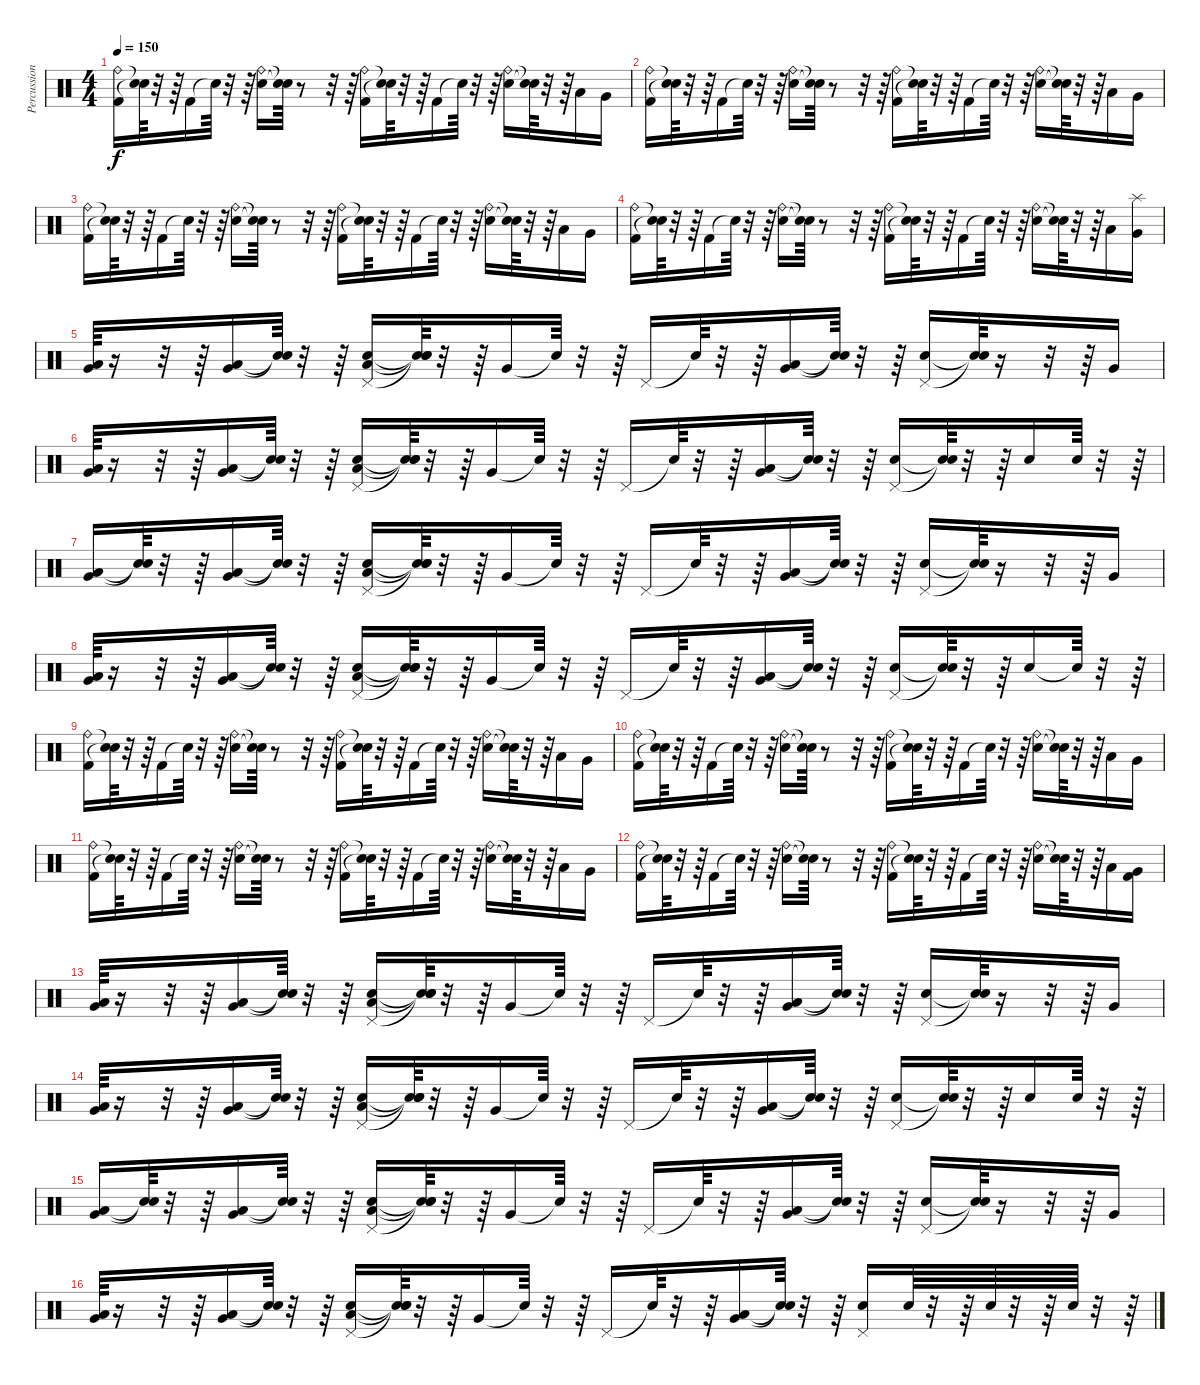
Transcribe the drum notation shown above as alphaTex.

\track ("Percussions" "Percussion") {instrument percussion}
\staff {score}
\articulation defaults
\ts (4 4)
\tempo 150
\clef neutral
\ks c
("Ride (bell)" "Kick (hit) 2").16{dy f} ("Snare (hit)"{t} "Snare (hit)"{t}).64 r.32 r.64 "Kick (hit) 2".16 "Snare (hit)"{t}.64 r.32 r.64 ("Ride (bell)" "Electric Snare (hit)").16 ("Snare (hit)"{t} "Snare (hit)"{t}).64 r.8 r.32 r.64 ("Ride (bell)" "Kick (hit) 2").16 ("Snare (hit)"{t} "Snare (hit)"{t}).64 r.32 r.64 "Kick (hit) 2".16 "Snare (hit)"{t}.64 r.32 r.64 ("Ride (bell)" "Electric Snare (hit)").16 ("Snare (hit)"{t} "Snare (hit)"{t}).64 r.32 r.64 "Low Tom (hit)".16 "Very Low Tom (hit)".16 |
("Ride (bell)" "Kick (hit) 2").16 ("Snare (hit)"{t} "Snare (hit)"{t}).64 r.32 r.64 "Kick (hit) 2".16 "Snare (hit)"{t}.64 r.32 r.64 ("Ride (bell)" "Electric Snare (hit)").16 ("Snare (hit)"{t} "Snare (hit)"{t}).64 r.8 r.32 r.64 ("Ride (bell)" "Kick (hit) 2").16 ("Snare (hit)"{t} "Snare (hit)"{t}).64 r.32 r.64 "Kick (hit) 2".16 "Snare (hit)"{t}.64 r.32 r.64 ("Ride (bell)" "Electric Snare (hit)").16 ("Snare (hit)"{t} "Snare (hit)"{t}).64 r.32 r.64 "Low Tom (hit)".16 "Very Low Tom (hit)".16 |
("Ride (bell)" "Kick (hit) 2").16 ("Snare (hit)"{t} "Snare (hit)"{t}).64 r.32 r.64 "Kick (hit) 2".16 "Snare (hit)"{t}.64 r.32 r.64 ("Ride (bell)" "Electric Snare (hit)").16 ("Snare (hit)"{t} "Snare (hit)"{t}).64 r.8 r.32 r.64 ("Ride (bell)" "Kick (hit) 2").16 ("Snare (hit)"{t} "Snare (hit)"{t}).64 r.32 r.64 "Kick (hit) 2".16 "Snare (hit)"{t}.64 r.32 r.64 ("Ride (bell)" "Electric Snare (hit)").16 ("Snare (hit)"{t} "Snare (hit)"{t}).64 r.32 r.64 "Low Tom (hit)".16 "Very Low Tom (hit)".16 |
("Ride (bell)" "Kick (hit) 2").16 ("Snare (hit)"{t} "Snare (hit)"{t}).64 r.32 r.64 "Kick (hit) 2".16 "Snare (hit)"{t}.64 r.32 r.64 ("Ride (bell)" "Electric Snare (hit)").16 ("Snare (hit)"{t} "Snare (hit)"{t}).64 r.8 r.32 r.64 ("Ride (bell)" "Kick (hit) 2").16 ("Snare (hit)"{t} "Snare (hit)"{t}).64 r.32 r.64 "Kick (hit) 2".16 "Snare (hit)"{t}.64 r.32 r.64 ("Ride (bell)" "Electric Snare (hit)").16 ("Snare (hit)"{t} "Snare (hit)"{t}).64 r.32 r.64 "Low Tom (hit)".16 ("Very Low Tom (hit)" "Splash (hit)").16 |
("Very Low Tom (hit)" "Low Floor Tom (hit)").64 r.16 r.32 r.64 ("Very Low Tom (hit)" "Low Floor Tom (hit)").16 ("Snare (hit)"{t} "Snare (hit)"{t}).64 r.32 r.64 ("Electric Snare (hit)" "Pedal Hi-Hat (hit)" "Low Floor Tom (hit)").16 ("Snare (hit)"{t} "Snare (hit)"{t} "Snare (hit)"{t}).64 r.32 r.64 "Very Low Tom (hit)".16 "Snare (hit)"{t}.64 r.32 r.64 "Pedal Hi-Hat (hit)".16 "Snare (hit)"{t}.64 r.32 r.64 ("Very Low Tom (hit)" "Low Floor Tom (hit)").16 ("Snare (hit)"{t} "Snare (hit)"{t}).64 r.32 r.64 ("Electric Snare (hit)" "Pedal Hi-Hat (hit)").16 ("Snare (hit)"{t} "Snare (hit)"{t}).64 r.16 r.32 r.64 "Very Low Tom (hit)".16 |
("Very Low Tom (hit)" "Low Floor Tom (hit)").64 r.16 r.32 r.64 ("Very Low Tom (hit)" "Low Floor Tom (hit)").16 ("Snare (hit)"{t} "Snare (hit)"{t}).64 r.32 r.64 ("Electric Snare (hit)" "Pedal Hi-Hat (hit)" "Low Floor Tom (hit)").16 ("Snare (hit)"{t} "Snare (hit)"{t} "Snare (hit)"{t}).64 r.32 r.64 "Very Low Tom (hit)".16 "Snare (hit)"{t}.64 r.32 r.64 "Pedal Hi-Hat (hit)".16 "Snare (hit)"{t}.64 r.32 r.64 ("Very Low Tom (hit)" "Low Floor Tom (hit)").16 ("Snare (hit)"{t} "Snare (hit)"{t}).64 r.32 r.64 ("Electric Snare (hit)" "Pedal Hi-Hat (hit)").16 ("Snare (hit)"{t} "Snare (hit)"{t}).64 r.32 r.64 "Electric Snare (hit)".16 "Electric Snare (hit)".64 r.32 r.64 |
("Very Low Tom (hit)" "Low Floor Tom (hit)").16 ("Snare (hit)"{t} "Snare (hit)"{t}).64 r.32 r.64 ("Very Low Tom (hit)" "Low Floor Tom (hit)").16 ("Snare (hit)"{t} "Snare (hit)"{t}).64 r.32 r.64 ("Electric Snare (hit)" "Pedal Hi-Hat (hit)" "Low Floor Tom (hit)").16 ("Snare (hit)"{t} "Snare (hit)"{t} "Snare (hit)"{t}).64 r.32 r.64 "Very Low Tom (hit)".16 "Snare (hit)"{t}.64 r.32 r.64 "Pedal Hi-Hat (hit)".16 "Snare (hit)"{t}.64 r.32 r.64 ("Very Low Tom (hit)" "Low Floor Tom (hit)").16 ("Snare (hit)"{t} "Snare (hit)"{t}).64 r.32 r.64 ("Electric Snare (hit)" "Pedal Hi-Hat (hit)").16 ("Snare (hit)"{t} "Snare (hit)"{t}).64 r.16 r.32 r.64 "Very Low Tom (hit)".16 |
("Very Low Tom (hit)" "Low Floor Tom (hit)").64 r.16 r.32 r.64 ("Very Low Tom (hit)" "Low Floor Tom (hit)").16 ("Snare (hit)"{t} "Snare (hit)"{t}).64 r.32 r.64 ("Electric Snare (hit)" "Pedal Hi-Hat (hit)" "Low Floor Tom (hit)").16 ("Snare (hit)"{t} "Snare (hit)"{t} "Snare (hit)"{t}).64 r.32 r.64 "Very Low Tom (hit)".16 "Snare (hit)"{t}.64 r.32 r.64 "Pedal Hi-Hat (hit)".16 "Snare (hit)"{t}.64 r.32 r.64 ("Very Low Tom (hit)" "Low Floor Tom (hit)").16 ("Snare (hit)"{t} "Snare (hit)"{t}).64 r.32 r.64 ("Electric Snare (hit)" "Pedal Hi-Hat (hit)").16 ("Snare (hit)"{t} "Snare (hit)"{t}).64 r.32 r.64 "Electric Snare (hit)".16 "Snare (hit)"{t}.64 r.32 r.64 |
("Ride (bell)" "Kick (hit) 2").16 ("Snare (hit)"{t} "Snare (hit)"{t}).64 r.32 r.64 "Kick (hit) 2".16 "Snare (hit)"{t}.64 r.32 r.64 ("Ride (bell)" "Electric Snare (hit)").16 ("Snare (hit)"{t} "Snare (hit)"{t}).64 r.8 r.32 r.64 ("Ride (bell)" "Kick (hit) 2").16 ("Snare (hit)"{t} "Snare (hit)"{t}).64 r.32 r.64 "Kick (hit) 2".16 "Snare (hit)"{t}.64 r.32 r.64 ("Ride (bell)" "Electric Snare (hit)").16 ("Snare (hit)"{t} "Snare (hit)"{t}).64 r.32 r.64 "Low Tom (hit)".16 "Very Low Tom (hit)".16 |
("Ride (bell)" "Kick (hit) 2").16 ("Snare (hit)"{t} "Snare (hit)"{t}).64 r.32 r.64 "Kick (hit) 2".16 "Snare (hit)"{t}.64 r.32 r.64 ("Ride (bell)" "Electric Snare (hit)").16 ("Snare (hit)"{t} "Snare (hit)"{t}).64 r.8 r.32 r.64 ("Ride (bell)" "Kick (hit) 2").16 ("Snare (hit)"{t} "Snare (hit)"{t}).64 r.32 r.64 "Kick (hit) 2".16 "Snare (hit)"{t}.64 r.32 r.64 ("Ride (bell)" "Electric Snare (hit)").16 ("Snare (hit)"{t} "Snare (hit)"{t}).64 r.32 r.64 "Low Tom (hit)".16 "Very Low Tom (hit)".16 |
("Ride (bell)" "Kick (hit) 2").16 ("Snare (hit)"{t} "Snare (hit)"{t}).64 r.32 r.64 "Kick (hit) 2".16 "Snare (hit)"{t}.64 r.32 r.64 ("Ride (bell)" "Electric Snare (hit)").16 ("Snare (hit)"{t} "Snare (hit)"{t}).64 r.8 r.32 r.64 ("Ride (bell)" "Kick (hit) 2").16 ("Snare (hit)"{t} "Snare (hit)"{t}).64 r.32 r.64 "Kick (hit) 2".16 "Snare (hit)"{t}.64 r.32 r.64 ("Ride (bell)" "Electric Snare (hit)").16 ("Snare (hit)"{t} "Snare (hit)"{t}).64 r.32 r.64 "Low Tom (hit)".16 "Very Low Tom (hit)".16 |
("Ride (bell)" "Kick (hit) 2").16 ("Snare (hit)"{t} "Snare (hit)"{t}).64 r.32 r.64 "Kick (hit) 2".16 "Snare (hit)"{t}.64 r.32 r.64 ("Ride (bell)" "Electric Snare (hit)").16 ("Snare (hit)"{t} "Snare (hit)"{t}).64 r.8 r.32 r.64 ("Ride (bell)" "Kick (hit) 2").16 ("Snare (hit)"{t} "Snare (hit)"{t}).64 r.32 r.64 "Kick (hit) 2".16 "Snare (hit)"{t}.64 r.32 r.64 ("Ride (bell)" "Electric Snare (hit)").16 ("Snare (hit)"{t} "Snare (hit)"{t}).64 r.32 r.64 "Low Tom (hit)".16 ("Very Low Tom (hit)" "Kick (hit) 2").16 |
("Very Low Tom (hit)" "Low Floor Tom (hit)").64 r.16 r.32 r.64 ("Very Low Tom (hit)" "Low Floor Tom (hit)").16 ("Snare (hit)"{t} "Snare (hit)"{t}).64 r.32 r.64 ("Electric Snare (hit)" "Pedal Hi-Hat (hit)" "Low Floor Tom (hit)").16 ("Snare (hit)"{t} "Snare (hit)"{t} "Snare (hit)"{t}).64 r.32 r.64 "Very Low Tom (hit)".16 "Snare (hit)"{t}.64 r.32 r.64 "Pedal Hi-Hat (hit)".16 "Snare (hit)"{t}.64 r.32 r.64 ("Very Low Tom (hit)" "Low Floor Tom (hit)").16 ("Snare (hit)"{t} "Snare (hit)"{t}).64 r.32 r.64 ("Electric Snare (hit)" "Pedal Hi-Hat (hit)").16 ("Snare (hit)"{t} "Snare (hit)"{t}).64 r.16 r.32 r.64 "Very Low Tom (hit)".16 |
("Very Low Tom (hit)" "Low Floor Tom (hit)").64 r.16 r.32 r.64 ("Very Low Tom (hit)" "Low Floor Tom (hit)").16 ("Snare (hit)"{t} "Snare (hit)"{t}).64 r.32 r.64 ("Electric Snare (hit)" "Pedal Hi-Hat (hit)" "Low Floor Tom (hit)").16 ("Snare (hit)"{t} "Snare (hit)"{t} "Snare (hit)"{t}).64 r.32 r.64 "Very Low Tom (hit)".16 "Snare (hit)"{t}.64 r.32 r.64 "Pedal Hi-Hat (hit)".16 "Snare (hit)"{t}.64 r.32 r.64 ("Very Low Tom (hit)" "Low Floor Tom (hit)").16 ("Snare (hit)"{t} "Snare (hit)"{t}).64 r.32 r.64 ("Electric Snare (hit)" "Pedal Hi-Hat (hit)").16 ("Snare (hit)"{t} "Snare (hit)"{t}).64 r.32 r.64 "Electric Snare (hit)".16 "Electric Snare (hit)".64 r.32 r.64 |
("Very Low Tom (hit)" "Low Floor Tom (hit)").16 ("Snare (hit)"{t} "Snare (hit)"{t}).64 r.32 r.64 ("Very Low Tom (hit)" "Low Floor Tom (hit)").16 ("Snare (hit)"{t} "Snare (hit)"{t}).64 r.32 r.64 ("Electric Snare (hit)" "Pedal Hi-Hat (hit)" "Low Floor Tom (hit)").16 ("Snare (hit)"{t} "Snare (hit)"{t} "Snare (hit)"{t}).64 r.32 r.64 "Very Low Tom (hit)".16 "Snare (hit)"{t}.64 r.32 r.64 "Pedal Hi-Hat (hit)".16 "Snare (hit)"{t}.64 r.32 r.64 ("Very Low Tom (hit)" "Low Floor Tom (hit)").16 ("Snare (hit)"{t} "Snare (hit)"{t}).64 r.32 r.64 ("Electric Snare (hit)" "Pedal Hi-Hat (hit)").16 ("Snare (hit)"{t} "Snare (hit)"{t}).64 r.16 r.32 r.64 "Very Low Tom (hit)".16 |
("Very Low Tom (hit)" "Low Floor Tom (hit)").64 r.16 r.32 r.64 ("Very Low Tom (hit)" "Low Floor Tom (hit)").16 ("Snare (hit)"{t} "Snare (hit)"{t}).64 r.32 r.64 ("Electric Snare (hit)" "Pedal Hi-Hat (hit)" "Low Floor Tom (hit)").16 ("Snare (hit)"{t} "Snare (hit)"{t} "Snare (hit)"{t}).64 r.32 r.64 "Very Low Tom (hit)".16 "Snare (hit)"{t}.64 r.32 r.64 "Pedal Hi-Hat (hit)".16 "Snare (hit)"{t}.64 r.32 r.64 ("Very Low Tom (hit)" "Low Floor Tom (hit)").16 ("Snare (hit)"{t} "Snare (hit)"{t}).64 r.32 r.64 ("Electric Snare (hit)" "Pedal Hi-Hat (hit)").16 "Electric Snare (hit)".64 r.32 r.64 "Electric Snare (hit)".64 r.32 r.64 "Electric Snare (hit)".64 r.32 r.64
